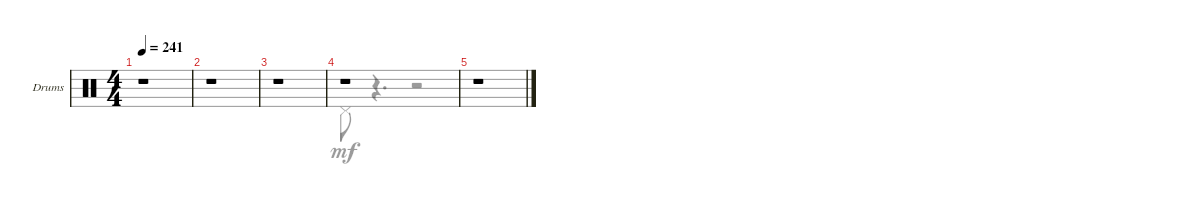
\defaultSystemsLayout 4
\bracketExtendMode groupsimilarinstruments
\firstSystemTrackNameOrientation horizontal
\otherSystemsTrackNameOrientation horizontal
\track ("Drumkit" "Drums") {instrument percussion}
\staff {score}
\articulation defaults
\voice
\ts (4 4)
\tempo 241
\clef neutral
\ks c
r.1{dy mf} |
r.1 |
r.1 |
r.1 |
r.1
\voice
\clef neutral
\ottava regular
\simile none
\ks c
|
|
|
|
\voice
\clef neutral
\ottava regular
\simile none
\ks c
|
|
|
"Pedal Hi-Hat (hit)".8 r.4{d} r.2 |
